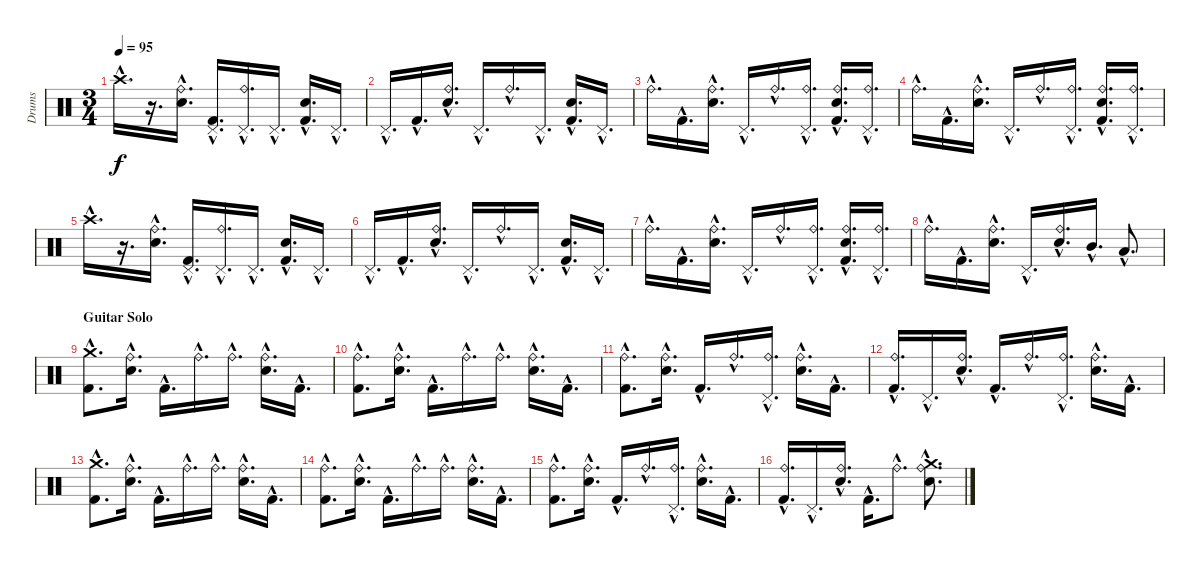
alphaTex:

\track ("Drums" "Drums") {instrument percussion}
\staff {score}
\articulation defaults
\ts (3 4)
\tempo 95
\clef neutral
\ks c "Crash high (hit)"{hac}.16{d dy f}
r.16{d} ("Electric Snare (hit)"{hac} "Ride (bell)"{hac}).16{d} ("Kick (hit) 2"{hac} "Pedal Hi-Hat (hit)"{hac}).16{d} ("Ride (bell)"{hac} "Pedal Hi-Hat (hit)"{hac}).16{d} "Pedal Hi-Hat (hit)"{hac}.16{d} ("Kick (hit) 2"{hac} "Electric Snare (hit)"{hac}).16{d} "Pedal Hi-Hat (hit)"{hac}.16{d} |
"Pedal Hi-Hat (hit)"{hac}.16{d} "Kick (hit) 2"{hac}.16{d} ("Electric Snare (hit)"{hac} "Ride (bell)"{hac}).16{d} "Pedal Hi-Hat (hit)"{hac}.16{d} "Ride (bell)"{hac}.16{d} "Pedal Hi-Hat (hit)"{hac}.16{d} ("Kick (hit) 2"{hac} "Electric Snare (hit)"{hac}).16{d} "Pedal Hi-Hat (hit)"{hac}.16{d} |
"Ride (bell)"{hac}.16{d} "Kick (hit) 2"{hac}.16{d} ("Electric Snare (hit)"{hac} "Ride (bell)"{hac}).16{d} "Pedal Hi-Hat (hit)"{hac}.16{d} "Ride (bell)"{hac}.16{d} ("Ride (bell)"{hac} "Pedal Hi-Hat (hit)"{hac}).16{d} ("Kick (hit) 2"{hac} "Electric Snare (hit)"{hac} "Ride (bell)"{hac}).16{d} ("Ride (bell)"{hac} "Pedal Hi-Hat (hit)"{hac}).16{d} |
"Ride (bell)"{hac}.16{d} "Kick (hit) 2"{hac}.16{d} ("Electric Snare (hit)"{hac} "Ride (bell)"{hac}).16{d} "Pedal Hi-Hat (hit)"{hac}.16{d} "Ride (bell)"{hac}.16{d} ("Ride (bell)"{hac} "Pedal Hi-Hat (hit)"{hac}).16{d} ("Kick (hit) 2"{hac} "Electric Snare (hit)"{hac} "Ride (bell)"{hac}).16{d} ("Ride (bell)"{hac} "Pedal Hi-Hat (hit)"{hac}).16{d} |
"Crash high (hit)"{hac}.16{d} r.16{d} ("Electric Snare (hit)"{hac} "Ride (bell)"{hac}).16{d} ("Kick (hit) 2"{hac} "Pedal Hi-Hat (hit)"{hac}).16{d} ("Ride (bell)"{hac} "Pedal Hi-Hat (hit)"{hac}).16{d} "Pedal Hi-Hat (hit)"{hac}.16{d} ("Kick (hit) 2"{hac} "Electric Snare (hit)"{hac}).16{d} "Pedal Hi-Hat (hit)"{hac}.16{d} |
"Pedal Hi-Hat (hit)"{hac}.16{d} "Kick (hit) 2"{hac}.16{d} ("Electric Snare (hit)"{hac} "Ride (bell)"{hac}).16{d} "Pedal Hi-Hat (hit)"{hac}.16{d} "Ride (bell)"{hac}.16{d} "Pedal Hi-Hat (hit)"{hac}.16{d} ("Kick (hit) 2"{hac} "Electric Snare (hit)"{hac}).16{d} "Pedal Hi-Hat (hit)"{hac}.16{d} |
"Ride (bell)"{hac}.16{d} "Kick (hit) 2"{hac}.16{d} ("Electric Snare (hit)"{hac} "Ride (bell)"{hac}).16{d} "Pedal Hi-Hat (hit)"{hac}.16{d} "Ride (bell)"{hac}.16{d} ("Ride (bell)"{hac} "Pedal Hi-Hat (hit)"{hac}).16{d} ("Kick (hit) 2"{hac} "Electric Snare (hit)"{hac} "Ride (bell)"{hac}).16{d} ("Ride (bell)"{hac} "Pedal Hi-Hat (hit)"{hac}).16{d} |
"Ride (bell)"{hac}.16{d} "Kick (hit) 2"{hac}.16{d} ("Electric Snare (hit)"{hac} "Ride (bell)"{hac}).16{d} "Pedal Hi-Hat (hit)"{hac}.16{d} ("Electric Snare (hit)"{hac} "Ride (bell)"{hac}).16{d} "Mid Tom (hit)"{hac}.16{d} "Low Tom (hit)"{hac}.8{d} |
\section ("" "Guitar Solo")
("Kick (hit) 2"{hac} "Crash medium (hit)"{hac}).8{d} ("Electric Snare (hit)"{hac} "Ride (bell)"{hac}).16{d} "Kick (hit) 2"{hac}.16{d} "Ride (bell)"{hac}.16{d} "Ride (bell)"{hac}.16{d} ("Electric Snare (hit)"{hac} "Ride (bell)"{hac}).16{d} "Kick (hit) 2"{hac}.16{d} |
("Kick (hit) 2"{hac} "Ride (bell)"{hac}).8{d} ("Electric Snare (hit)"{hac} "Ride (bell)"{hac}).16{d} "Kick (hit) 2"{hac}.16{d} "Ride (bell)"{hac}.16{d} "Ride (bell)"{hac}.16{d} ("Electric Snare (hit)"{hac} "Ride (bell)"{hac}).16{d} "Kick (hit) 2"{hac}.16{d} |
("Kick (hit) 2"{hac} "Ride (bell)"{hac}).8{d} ("Electric Snare (hit)"{hac} "Ride (bell)"{hac}).16{d} "Kick (hit) 2"{hac}.16{d} "Ride (bell)"{hac}.16{d} ("Ride (bell)"{hac} "Pedal Hi-Hat (hit)"{hac}).16{d} ("Electric Snare (hit)"{hac} "Ride (bell)"{hac}).16{d} "Kick (hit) 2"{hac}.16{d} |
("Kick (hit) 2"{hac} "Ride (bell)"{hac}).16{d} "Pedal Hi-Hat (hit)"{hac}.16{d} ("Electric Snare (hit)"{hac} "Ride (bell)"{hac}).16{d} "Kick (hit) 2"{hac}.16{d} "Ride (bell)"{hac}.16{d} ("Ride (bell)"{hac} "Pedal Hi-Hat (hit)"{hac}).16{d} ("Electric Snare (hit)"{hac} "Ride (bell)"{hac}).16{d} "Kick (hit) 2"{hac}.16{d} |
("Kick (hit) 2"{hac} "Crash medium (hit)"{hac}).8{d} ("Electric Snare (hit)"{hac} "Ride (bell)"{hac}).16{d} "Kick (hit) 2"{hac}.16{d} "Ride (bell)"{hac}.16{d} "Ride (bell)"{hac}.16{d} ("Electric Snare (hit)"{hac} "Ride (bell)"{hac}).16{d} "Kick (hit) 2"{hac}.16{d} |
("Kick (hit) 2"{hac} "Ride (bell)"{hac}).8{d} ("Electric Snare (hit)"{hac} "Ride (bell)"{hac}).16{d} "Kick (hit) 2"{hac}.16{d} "Ride (bell)"{hac}.16{d} "Ride (bell)"{hac}.16{d} ("Electric Snare (hit)"{hac} "Ride (bell)"{hac}).16{d} "Kick (hit) 2"{hac}.16{d} |
("Kick (hit) 2"{hac} "Ride (bell)"{hac}).8{d} ("Electric Snare (hit)"{hac} "Ride (bell)"{hac}).16{d} "Kick (hit) 2"{hac}.16{d} "Ride (bell)"{hac}.16{d} ("Ride (bell)"{hac} "Pedal Hi-Hat (hit)"{hac}).16{d} ("Electric Snare (hit)"{hac} "Ride (bell)"{hac}).16{d} "Kick (hit) 2"{hac}.16{d} |
("Kick (hit) 2"{hac} "Ride (bell)"{hac}).16{d} "Pedal Hi-Hat (hit)"{hac}.16{d} ("Electric Snare (hit)"{hac} "Ride (bell)"{hac}).16{d} "Kick (hit) 2"{hac}.16{d} "Ride (bell)"{hac}.8{d} ("Electric Snare (hit)"{hac} "Ride (bell)"{hac} "Crash medium (hit)"{hac}).8{d}
